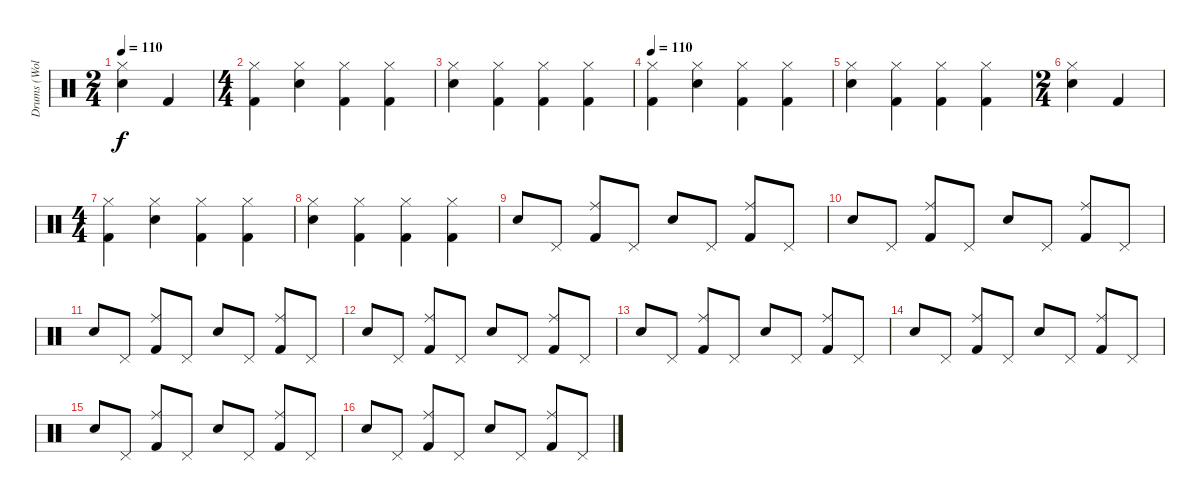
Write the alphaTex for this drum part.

\track ("Drums (Wolf Simons)" "Drums (Wol") {instrument percussion}
\staff {score}
\articulation defaults
\ts (2 4)
\tempo 110
\clef neutral
\ks c
("Hi-Hat (closed)" "Electric Snare (hit)").4{dy f} "Kick (hit) 2".4 |
\ts (4 4)
("Hi-Hat (closed)" "Kick (hit) 2").4 ("Hi-Hat (closed)" "Electric Snare (hit)").4 ("Hi-Hat (closed)" "Kick (hit) 2").4 ("Hi-Hat (closed)" "Kick (hit) 2").4 |
("Hi-Hat (closed)" "Electric Snare (hit)").4 ("Hi-Hat (closed)" "Kick (hit) 2").4 ("Hi-Hat (closed)" "Kick (hit) 2").4 ("Hi-Hat (closed)" "Kick (hit) 2").4 |
\tempo 110
("Hi-Hat (closed)" "Kick (hit) 2").4 ("Hi-Hat (closed)" "Electric Snare (hit)").4 ("Hi-Hat (closed)" "Kick (hit) 2").4 ("Hi-Hat (closed)" "Kick (hit) 2").4 |
("Hi-Hat (closed)" "Electric Snare (hit)").4 ("Hi-Hat (closed)" "Kick (hit) 2").4 ("Hi-Hat (closed)" "Kick (hit) 2").4 ("Hi-Hat (closed)" "Kick (hit) 2").4 |
\ts (2 4)
("Hi-Hat (closed)" "Electric Snare (hit)").4 "Kick (hit) 2".4 |
\ts (4 4)
("Hi-Hat (closed)" "Kick (hit) 2").4 ("Hi-Hat (closed)" "Electric Snare (hit)").4 ("Hi-Hat (closed)" "Kick (hit) 2").4 ("Hi-Hat (closed)" "Kick (hit) 2").4 |
("Hi-Hat (closed)" "Electric Snare (hit)").4 ("Hi-Hat (closed)" "Kick (hit) 2").4 ("Hi-Hat (closed)" "Kick (hit) 2").4 ("Hi-Hat (closed)" "Kick (hit) 2").4 |
"Electric Snare (hit)".8 "Pedal Hi-Hat (hit)".8 ("Ride (middle)" "Kick (hit) 2").8 "Pedal Hi-Hat (hit)".8 "Electric Snare (hit)".8 "Pedal Hi-Hat (hit)".8 ("Ride (middle)" "Kick (hit) 2").8 "Pedal Hi-Hat (hit)".8 |
"Electric Snare (hit)".8 "Pedal Hi-Hat (hit)".8 ("Ride (middle)" "Kick (hit) 2").8 "Pedal Hi-Hat (hit)".8 "Electric Snare (hit)".8 "Pedal Hi-Hat (hit)".8 ("Ride (middle)" "Kick (hit) 2").8 "Pedal Hi-Hat (hit)".8 |
"Electric Snare (hit)".8 "Pedal Hi-Hat (hit)".8 ("Ride (middle)" "Kick (hit) 2").8 "Pedal Hi-Hat (hit)".8 "Electric Snare (hit)".8 "Pedal Hi-Hat (hit)".8 ("Ride (middle)" "Kick (hit) 2").8 "Pedal Hi-Hat (hit)".8 |
"Electric Snare (hit)".8 "Pedal Hi-Hat (hit)".8 ("Ride (middle)" "Kick (hit) 2").8 "Pedal Hi-Hat (hit)".8 "Electric Snare (hit)".8 "Pedal Hi-Hat (hit)".8 ("Ride (middle)" "Kick (hit) 2").8 "Pedal Hi-Hat (hit)".8 |
"Electric Snare (hit)".8 "Pedal Hi-Hat (hit)".8 ("Ride (middle)" "Kick (hit) 2").8 "Pedal Hi-Hat (hit)".8 "Electric Snare (hit)".8 "Pedal Hi-Hat (hit)".8 ("Ride (middle)" "Kick (hit) 2").8 "Pedal Hi-Hat (hit)".8 |
"Electric Snare (hit)".8 "Pedal Hi-Hat (hit)".8 ("Ride (middle)" "Kick (hit) 2").8 "Pedal Hi-Hat (hit)".8 "Electric Snare (hit)".8 "Pedal Hi-Hat (hit)".8 ("Ride (middle)" "Kick (hit) 2").8 "Pedal Hi-Hat (hit)".8 |
"Electric Snare (hit)".8 "Pedal Hi-Hat (hit)".8 ("Ride (middle)" "Kick (hit) 2").8 "Pedal Hi-Hat (hit)".8 "Electric Snare (hit)".8 "Pedal Hi-Hat (hit)".8 ("Ride (middle)" "Kick (hit) 2").8 "Pedal Hi-Hat (hit)".8 |
"Electric Snare (hit)".8 "Pedal Hi-Hat (hit)".8 ("Ride (middle)" "Kick (hit) 2").8 "Pedal Hi-Hat (hit)".8 "Electric Snare (hit)".8 "Pedal Hi-Hat (hit)".8 ("Ride (middle)" "Kick (hit) 2").8 "Pedal Hi-Hat (hit)".8
